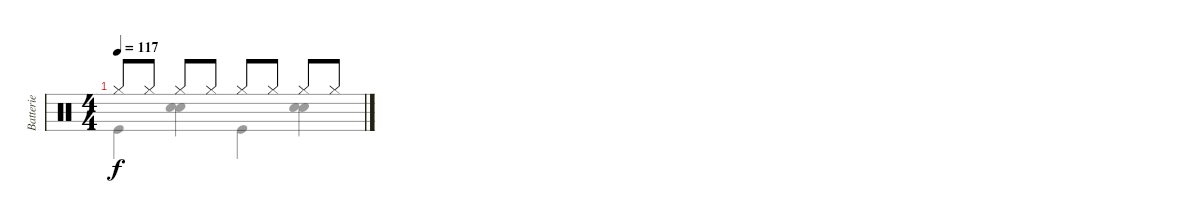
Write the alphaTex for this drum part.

\track ("Batterie" "Batterie") {instrument percussion}
\staff {score}
\articulation defaults
\voice
\ts (4 4)
\tempo 117
\clef neutral
\ks c "Hi-Hat (closed)".8{dy f} "Hi-Hat (closed)".8 "Hi-Hat (closed)".8 "Hi-Hat (closed)".8 "Hi-Hat (closed)".8 "Hi-Hat (closed)".8 "Hi-Hat (closed)".8 "Hi-Hat (closed)".8
\voice
\clef neutral
\ks c "Kick (hit)".4{dy f}
("Hand Clap (hit)" "Snare (hit) 2").4 "Kick (hit)".4 ("Hand Clap (hit)" "Snare (hit) 2").4
